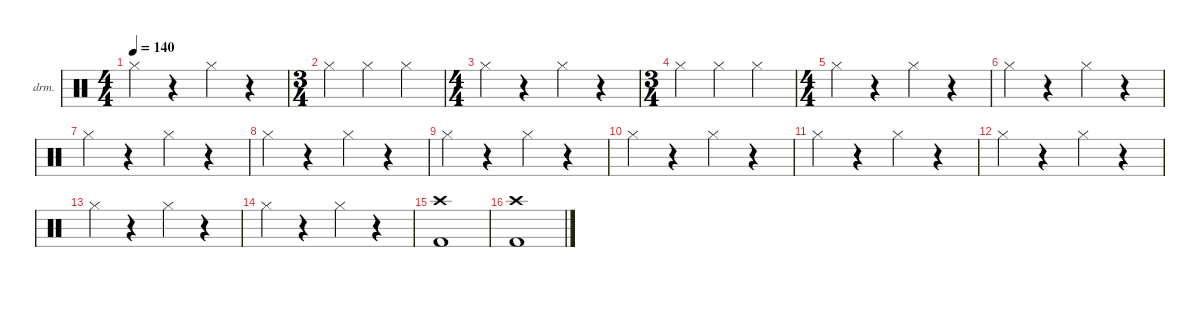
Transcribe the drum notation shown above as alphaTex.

\defaultSystemsLayout 4
\hideDynamics
\bracketExtendMode nobrackets
\firstSystemTrackNameOrientation horizontal
\otherSystemsTrackNameOrientation horizontal
\track ("Drumkit" "drm.") {instrument percussion}
\staff {score}
\articulation defaults
\ts (4 4)
\tempo 140
\clef neutral
\ks c "Hi-Hat (closed)".4{dy f}
r.4 "Hi-Hat (closed)".4 r.4 |
\ts (3 4)
\beaming (8 2 2 2)
"Hi-Hat (closed)".4 "Hi-Hat (closed)".4 "Hi-Hat (closed)".4 |
\ts (4 4)
\beaming (8 2 2 2 2)
"Hi-Hat (closed)".4 r.4 "Hi-Hat (closed)".4 r.4 |
\ts (3 4)
\beaming (8 2 2 2)
"Hi-Hat (closed)".4 "Hi-Hat (closed)".4 "Hi-Hat (closed)".4 |
\ts (4 4)
\beaming (8 2 2 2 2)
"Hi-Hat (closed)".4 r.4 "Hi-Hat (closed)".4 r.4 |
"Hi-Hat (closed)".4 r.4 "Hi-Hat (closed)".4 r.4 |
"Hi-Hat (closed)".4 r.4 "Hi-Hat (closed)".4 r.4 |
"Hi-Hat (closed)".4 r.4 "Hi-Hat (closed)".4 r.4 |
"Hi-Hat (closed)".4 r.4 "Hi-Hat (closed)".4 r.4 |
"Hi-Hat (closed)".4 r.4 "Hi-Hat (closed)".4 r.4 |
"Hi-Hat (closed)".4 r.4 "Hi-Hat (closed)".4 r.4 |
"Hi-Hat (closed)".4 r.4 "Hi-Hat (closed)".4 r.4 |
"Hi-Hat (closed)".4 r.4 "Hi-Hat (closed)".4 r.4 |
"Hi-Hat (closed)".4 r.4 "Hi-Hat (closed)".4 r.4 |
("Kick (hit) 2" "Crash high (hit)").1 |
("Kick (hit) 2" "Crash high (hit)").1
